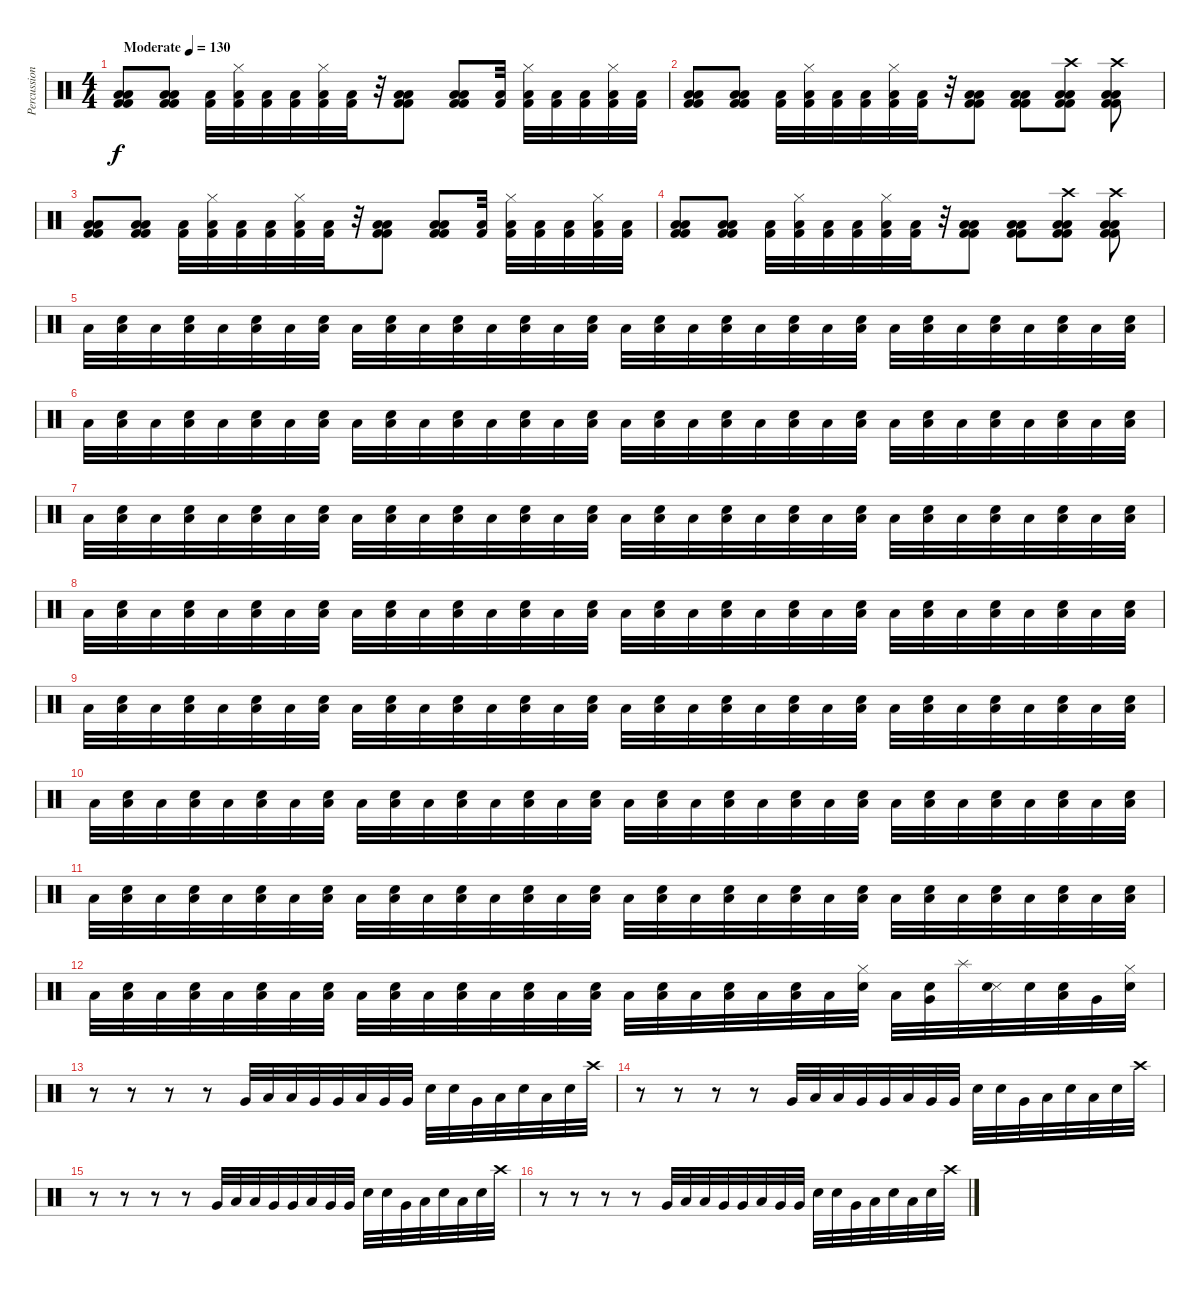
\track ("Percussion" "Percussion") {instrument percussion}
\staff {score}
\articulation defaults
\ts (4 4)
\tempo (130 "Moderate")
\clef neutral
\ks c
("Low Floor Tom (hit)" "Low Floor Tom (hit)" "Kick (hit) 2" "Kick (hit) 2").8{dy f} ("Low Floor Tom (hit)" "Low Floor Tom (hit)" "Kick (hit) 2" "Kick (hit) 2").8 ("Low Floor Tom (hit)" "Kick (hit) 2").32 ("Hi-Hat (closed)" "Low Floor Tom (hit)" "Kick (hit) 2").32 ("Low Floor Tom (hit)" "Kick (hit) 2").32 ("Low Floor Tom (hit)" "Kick (hit) 2").32 ("Hi-Hat (closed)" "Low Floor Tom (hit)" "Kick (hit) 2").32 ("Low Floor Tom (hit)" "Kick (hit) 2").32 r.32 ("Low Floor Tom (hit)" "Low Floor Tom (hit)" "Kick (hit) 2" "Kick (hit) 2").8 ("Low Floor Tom (hit)" "Low Floor Tom (hit)" "Kick (hit) 2" "Kick (hit) 2").8 ("Low Floor Tom (hit)" "Kick (hit) 2").32 ("Hi-Hat (closed)" "Low Floor Tom (hit)" "Kick (hit) 2").32 ("Low Floor Tom (hit)" "Kick (hit) 2").32 ("Low Floor Tom (hit)" "Kick (hit) 2").32 ("Hi-Hat (closed)" "Low Floor Tom (hit)" "Kick (hit) 2").32 ("Low Floor Tom (hit)" "Kick (hit) 2").32 |
("Low Floor Tom (hit)" "Low Floor Tom (hit)" "Kick (hit) 2" "Kick (hit) 2").8 ("Low Floor Tom (hit)" "Low Floor Tom (hit)" "Kick (hit) 2" "Kick (hit) 2").8 ("Low Floor Tom (hit)" "Kick (hit) 2").32 ("Hi-Hat (closed)" "Low Floor Tom (hit)" "Kick (hit) 2").32 ("Low Floor Tom (hit)" "Kick (hit) 2").32 ("Low Floor Tom (hit)" "Kick (hit) 2").32 ("Hi-Hat (closed)" "Low Floor Tom (hit)" "Kick (hit) 2").32 ("Low Floor Tom (hit)" "Kick (hit) 2").32 r.32 ("Low Floor Tom (hit)" "Low Floor Tom (hit)" "Kick (hit) 2" "Kick (hit) 2").8 ("Low Floor Tom (hit)" "Low Floor Tom (hit)" "Kick (hit) 2" "Kick (hit) 2").8 ("Low Floor Tom (hit)" "Low Floor Tom (hit)" "Kick (hit) 2" "Kick (hit) 2" "Crash high (hit)").8 ("Low Floor Tom (hit)" "Low Floor Tom (hit)" "Kick (hit) 2" "Kick (hit) 2" "Crash high (hit)").8 |
("Low Floor Tom (hit)" "Low Floor Tom (hit)" "Kick (hit) 2" "Kick (hit) 2").8 ("Low Floor Tom (hit)" "Low Floor Tom (hit)" "Kick (hit) 2" "Kick (hit) 2").8 ("Low Floor Tom (hit)" "Kick (hit) 2").32 ("Hi-Hat (closed)" "Low Floor Tom (hit)" "Kick (hit) 2").32 ("Low Floor Tom (hit)" "Kick (hit) 2").32 ("Low Floor Tom (hit)" "Kick (hit) 2").32 ("Hi-Hat (closed)" "Low Floor Tom (hit)" "Kick (hit) 2").32 ("Low Floor Tom (hit)" "Kick (hit) 2").32 r.32 ("Low Floor Tom (hit)" "Low Floor Tom (hit)" "Kick (hit) 2" "Kick (hit) 2").8 ("Low Floor Tom (hit)" "Low Floor Tom (hit)" "Kick (hit) 2" "Kick (hit) 2").8 ("Low Floor Tom (hit)" "Kick (hit) 2").32 ("Hi-Hat (closed)" "Low Floor Tom (hit)" "Kick (hit) 2").32 ("Low Floor Tom (hit)" "Kick (hit) 2").32 ("Low Floor Tom (hit)" "Kick (hit) 2").32 ("Hi-Hat (closed)" "Low Floor Tom (hit)" "Kick (hit) 2").32 ("Low Floor Tom (hit)" "Kick (hit) 2").32 |
("Low Floor Tom (hit)" "Low Floor Tom (hit)" "Kick (hit) 2" "Kick (hit) 2").8 ("Low Floor Tom (hit)" "Low Floor Tom (hit)" "Kick (hit) 2" "Kick (hit) 2").8 ("Low Floor Tom (hit)" "Kick (hit) 2").32 ("Hi-Hat (closed)" "Low Floor Tom (hit)" "Kick (hit) 2").32 ("Low Floor Tom (hit)" "Kick (hit) 2").32 ("Low Floor Tom (hit)" "Kick (hit) 2").32 ("Hi-Hat (closed)" "Low Floor Tom (hit)" "Kick (hit) 2").32 ("Low Floor Tom (hit)" "Kick (hit) 2").32 r.32 ("Low Floor Tom (hit)" "Low Floor Tom (hit)" "Kick (hit) 2" "Kick (hit) 2").8 ("Low Floor Tom (hit)" "Low Floor Tom (hit)" "Kick (hit) 2" "Kick (hit) 2").8 ("Low Floor Tom (hit)" "Low Floor Tom (hit)" "Kick (hit) 2" "Kick (hit) 2" "Crash high (hit)").8 ("Low Floor Tom (hit)" "Low Floor Tom (hit)" "Kick (hit) 2" "Kick (hit) 2" "Crash high (hit)").8 |
"Low Floor Tom (hit)".32 ("Low Floor Tom (hit)" "Electric Snare (hit)").32 "Low Floor Tom (hit)".32 ("Low Floor Tom (hit)" "Electric Snare (hit)").32 "Low Floor Tom (hit)".32 ("Low Floor Tom (hit)" "Electric Snare (hit)").32 "Low Floor Tom (hit)".32 ("Low Floor Tom (hit)" "Electric Snare (hit)").32 "Low Floor Tom (hit)".32 ("Low Floor Tom (hit)" "Electric Snare (hit)").32 "Low Floor Tom (hit)".32 ("Low Floor Tom (hit)" "Electric Snare (hit)").32 "Low Floor Tom (hit)".32 ("Low Floor Tom (hit)" "Electric Snare (hit)").32 "Low Floor Tom (hit)".32 ("Low Floor Tom (hit)" "Electric Snare (hit)").32 "Low Floor Tom (hit)".32 ("Low Floor Tom (hit)" "Electric Snare (hit)").32 "Low Floor Tom (hit)".32 ("Low Floor Tom (hit)" "Electric Snare (hit)").32 "Low Floor Tom (hit)".32 ("Low Floor Tom (hit)" "Electric Snare (hit)").32 "Low Floor Tom (hit)".32 ("Low Floor Tom (hit)" "Electric Snare (hit)").32 "Low Floor Tom (hit)".32 ("Low Floor Tom (hit)" "Electric Snare (hit)").32 "Low Floor Tom (hit)".32 ("Low Floor Tom (hit)" "Electric Snare (hit)").32 "Low Floor Tom (hit)".32 ("Low Floor Tom (hit)" "Electric Snare (hit)").32 "Low Floor Tom (hit)".32 ("Low Floor Tom (hit)" "Electric Snare (hit)").32 |
"Low Floor Tom (hit)".32 ("Low Floor Tom (hit)" "Electric Snare (hit)").32 "Low Floor Tom (hit)".32 ("Low Floor Tom (hit)" "Electric Snare (hit)").32 "Low Floor Tom (hit)".32 ("Low Floor Tom (hit)" "Electric Snare (hit)").32 "Low Floor Tom (hit)".32 ("Low Floor Tom (hit)" "Electric Snare (hit)").32 "Low Floor Tom (hit)".32 ("Low Floor Tom (hit)" "Electric Snare (hit)").32 "Low Floor Tom (hit)".32 ("Low Floor Tom (hit)" "Electric Snare (hit)").32 "Low Floor Tom (hit)".32 ("Low Floor Tom (hit)" "Electric Snare (hit)").32 "Low Floor Tom (hit)".32 ("Low Floor Tom (hit)" "Electric Snare (hit)").32 "Low Floor Tom (hit)".32 ("Low Floor Tom (hit)" "Electric Snare (hit)").32 "Low Floor Tom (hit)".32 ("Low Floor Tom (hit)" "Electric Snare (hit)").32 "Low Floor Tom (hit)".32 ("Low Floor Tom (hit)" "Electric Snare (hit)").32 "Low Floor Tom (hit)".32 ("Low Floor Tom (hit)" "Electric Snare (hit)").32 "Low Floor Tom (hit)".32 ("Low Floor Tom (hit)" "Electric Snare (hit)").32 "Low Floor Tom (hit)".32 ("Low Floor Tom (hit)" "Electric Snare (hit)").32 "Low Floor Tom (hit)".32 ("Low Floor Tom (hit)" "Electric Snare (hit)").32 "Low Floor Tom (hit)".32 ("Low Floor Tom (hit)" "Electric Snare (hit)").32 |
"Low Floor Tom (hit)".32 ("Low Floor Tom (hit)" "Electric Snare (hit)").32 "Low Floor Tom (hit)".32 ("Low Floor Tom (hit)" "Electric Snare (hit)").32 "Low Floor Tom (hit)".32 ("Low Floor Tom (hit)" "Electric Snare (hit)").32 "Low Floor Tom (hit)".32 ("Low Floor Tom (hit)" "Electric Snare (hit)").32 "Low Floor Tom (hit)".32 ("Low Floor Tom (hit)" "Electric Snare (hit)").32 "Low Floor Tom (hit)".32 ("Low Floor Tom (hit)" "Electric Snare (hit)").32 "Low Floor Tom (hit)".32 ("Low Floor Tom (hit)" "Electric Snare (hit)").32 "Low Floor Tom (hit)".32 ("Low Floor Tom (hit)" "Electric Snare (hit)").32 "Low Floor Tom (hit)".32 ("Low Floor Tom (hit)" "Electric Snare (hit)").32 "Low Floor Tom (hit)".32 ("Low Floor Tom (hit)" "Electric Snare (hit)").32 "Low Floor Tom (hit)".32 ("Low Floor Tom (hit)" "Electric Snare (hit)").32 "Low Floor Tom (hit)".32 ("Low Floor Tom (hit)" "Electric Snare (hit)").32 "Low Floor Tom (hit)".32 ("Low Floor Tom (hit)" "Electric Snare (hit)").32 "Low Floor Tom (hit)".32 ("Low Floor Tom (hit)" "Electric Snare (hit)").32 "Low Floor Tom (hit)".32 ("Low Floor Tom (hit)" "Electric Snare (hit)").32 "Low Floor Tom (hit)".32 ("Low Floor Tom (hit)" "Electric Snare (hit)").32 |
"Low Floor Tom (hit)".32 ("Low Floor Tom (hit)" "Electric Snare (hit)").32 "Low Floor Tom (hit)".32 ("Low Floor Tom (hit)" "Electric Snare (hit)").32 "Low Floor Tom (hit)".32 ("Low Floor Tom (hit)" "Electric Snare (hit)").32 "Low Floor Tom (hit)".32 ("Low Floor Tom (hit)" "Electric Snare (hit)").32 "Low Floor Tom (hit)".32 ("Low Floor Tom (hit)" "Electric Snare (hit)").32 "Low Floor Tom (hit)".32 ("Low Floor Tom (hit)" "Electric Snare (hit)").32 "Low Floor Tom (hit)".32 ("Low Floor Tom (hit)" "Electric Snare (hit)").32 "Low Floor Tom (hit)".32 ("Low Floor Tom (hit)" "Electric Snare (hit)").32 "Low Floor Tom (hit)".32 ("Low Floor Tom (hit)" "Electric Snare (hit)").32 "Low Floor Tom (hit)".32 ("Low Floor Tom (hit)" "Electric Snare (hit)").32 "Low Floor Tom (hit)".32 ("Low Floor Tom (hit)" "Electric Snare (hit)").32 "Low Floor Tom (hit)".32 ("Low Floor Tom (hit)" "Electric Snare (hit)").32 "Low Floor Tom (hit)".32 ("Low Floor Tom (hit)" "Electric Snare (hit)").32 "Low Floor Tom (hit)".32 ("Low Floor Tom (hit)" "Electric Snare (hit)").32 "Low Floor Tom (hit)".32 ("Low Floor Tom (hit)" "Electric Snare (hit)").32 "Low Floor Tom (hit)".32 ("Low Floor Tom (hit)" "Electric Snare (hit)").32 |
"Low Floor Tom (hit)".32 ("Low Floor Tom (hit)" "Electric Snare (hit)").32 "Low Floor Tom (hit)".32 ("Low Floor Tom (hit)" "Electric Snare (hit)").32 "Low Floor Tom (hit)".32 ("Low Floor Tom (hit)" "Electric Snare (hit)").32 "Low Floor Tom (hit)".32 ("Low Floor Tom (hit)" "Electric Snare (hit)").32 "Low Floor Tom (hit)".32 ("Low Floor Tom (hit)" "Electric Snare (hit)").32 "Low Floor Tom (hit)".32 ("Low Floor Tom (hit)" "Electric Snare (hit)").32 "Low Floor Tom (hit)".32 ("Low Floor Tom (hit)" "Electric Snare (hit)").32 "Low Floor Tom (hit)".32 ("Low Floor Tom (hit)" "Electric Snare (hit)").32 "Low Floor Tom (hit)".32 ("Low Floor Tom (hit)" "Electric Snare (hit)").32 "Low Floor Tom (hit)".32 ("Low Floor Tom (hit)" "Electric Snare (hit)").32 "Low Floor Tom (hit)".32 ("Low Floor Tom (hit)" "Electric Snare (hit)").32 "Low Floor Tom (hit)".32 ("Low Floor Tom (hit)" "Electric Snare (hit)").32 "Low Floor Tom (hit)".32 ("Low Floor Tom (hit)" "Electric Snare (hit)").32 "Low Floor Tom (hit)".32 ("Low Floor Tom (hit)" "Electric Snare (hit)").32 "Low Floor Tom (hit)".32 ("Low Floor Tom (hit)" "Electric Snare (hit)").32 "Low Floor Tom (hit)".32 ("Low Floor Tom (hit)" "Electric Snare (hit)").32 |
"Low Floor Tom (hit)".32 ("Low Floor Tom (hit)" "Electric Snare (hit)").32 "Low Floor Tom (hit)".32 ("Low Floor Tom (hit)" "Electric Snare (hit)").32 "Low Floor Tom (hit)".32 ("Low Floor Tom (hit)" "Electric Snare (hit)").32 "Low Floor Tom (hit)".32 ("Low Floor Tom (hit)" "Electric Snare (hit)").32 "Low Floor Tom (hit)".32 ("Low Floor Tom (hit)" "Electric Snare (hit)").32 "Low Floor Tom (hit)".32 ("Low Floor Tom (hit)" "Electric Snare (hit)").32 "Low Floor Tom (hit)".32 ("Low Floor Tom (hit)" "Electric Snare (hit)").32 "Low Floor Tom (hit)".32 ("Low Floor Tom (hit)" "Electric Snare (hit)").32 "Low Floor Tom (hit)".32 ("Low Floor Tom (hit)" "Electric Snare (hit)").32 "Low Floor Tom (hit)".32 ("Low Floor Tom (hit)" "Electric Snare (hit)").32 "Low Floor Tom (hit)".32 ("Low Floor Tom (hit)" "Electric Snare (hit)").32 "Low Floor Tom (hit)".32 ("Low Floor Tom (hit)" "Electric Snare (hit)").32 "Low Floor Tom (hit)".32 ("Low Floor Tom (hit)" "Electric Snare (hit)").32 "Low Floor Tom (hit)".32 ("Low Floor Tom (hit)" "Electric Snare (hit)").32 "Low Floor Tom (hit)".32 ("Low Floor Tom (hit)" "Electric Snare (hit)").32 "Low Floor Tom (hit)".32 ("Low Floor Tom (hit)" "Electric Snare (hit)").32 |
"Low Floor Tom (hit)".32 ("Low Floor Tom (hit)" "Electric Snare (hit)").32 "Low Floor Tom (hit)".32 ("Low Floor Tom (hit)" "Electric Snare (hit)").32 "Low Floor Tom (hit)".32 ("Low Floor Tom (hit)" "Electric Snare (hit)").32 "Low Floor Tom (hit)".32 ("Low Floor Tom (hit)" "Electric Snare (hit)").32 "Low Floor Tom (hit)".32 ("Low Floor Tom (hit)" "Electric Snare (hit)").32 "Low Floor Tom (hit)".32 ("Low Floor Tom (hit)" "Electric Snare (hit)").32 "Low Floor Tom (hit)".32 ("Low Floor Tom (hit)" "Electric Snare (hit)").32 "Low Floor Tom (hit)".32 ("Low Floor Tom (hit)" "Electric Snare (hit)").32 "Low Floor Tom (hit)".32 ("Low Floor Tom (hit)" "Electric Snare (hit)").32 "Low Floor Tom (hit)".32 ("Low Floor Tom (hit)" "Electric Snare (hit)").32 "Low Floor Tom (hit)".32 ("Low Floor Tom (hit)" "Electric Snare (hit)").32 "Low Floor Tom (hit)".32 ("Low Floor Tom (hit)" "Electric Snare (hit)").32 "Low Floor Tom (hit)".32 ("Low Floor Tom (hit)" "Electric Snare (hit)").32 "Low Floor Tom (hit)".32 ("Low Floor Tom (hit)" "Electric Snare (hit)").32 "Low Floor Tom (hit)".32 ("Low Floor Tom (hit)" "Electric Snare (hit)").32 "Low Floor Tom (hit)".32 ("Low Floor Tom (hit)" "Electric Snare (hit)").32 |
"Low Floor Tom (hit)".32 ("Low Floor Tom (hit)" "Electric Snare (hit)").32 "Low Floor Tom (hit)".32 ("Low Floor Tom (hit)" "Electric Snare (hit)").32 "Low Floor Tom (hit)".32 ("Low Floor Tom (hit)" "Electric Snare (hit)").32 "Low Floor Tom (hit)".32 ("Low Floor Tom (hit)" "Electric Snare (hit)").32 "Low Floor Tom (hit)".32 ("Low Floor Tom (hit)" "Electric Snare (hit)").32 "Low Floor Tom (hit)".32 ("Low Floor Tom (hit)" "Electric Snare (hit)").32 "Low Floor Tom (hit)".32 ("Low Floor Tom (hit)" "Electric Snare (hit)").32 "Low Floor Tom (hit)".32 ("Low Floor Tom (hit)" "Electric Snare (hit)").32 "Low Floor Tom (hit)".32 ("Low Floor Tom (hit)" "Electric Snare (hit)").32 "Low Floor Tom (hit)".32 ("Low Floor Tom (hit)" "Electric Snare (hit)").32 "Low Floor Tom (hit)".32 ("Low Floor Tom (hit)" "Electric Snare (hit)").32 "Low Floor Tom (hit)".32 ("Hi-Hat (closed)" "Electric Snare (hit)").32 "Low Floor Tom (hit)".32 ("Very Low Tom (hit)" "Electric Snare (hit)").32 "Splash (hit)".32 ("Snare (side stick) 3" "Electric Snare (hit)").32 "Hand Clap (hit)".32 ("Low Floor Tom (hit)" "Electric Snare (hit)").32 "Very Low Tom (hit)".32 ("Hi-Hat (closed)" "Electric Snare (hit)").32 |
r.8 r.8 r.8 r.8 "Very Low Tom (hit)".32 "Low Floor Tom (hit)".32 "Low Floor Tom (hit)".32 "Very Low Tom (hit)".32 "Very Low Tom (hit)".32 "Low Floor Tom (hit)".32 "Very Low Tom (hit)".32 "Very Low Tom (hit)".32 "Snare (hit) 2".32 "Snare (hit) 2".32 "Very Low Tom (hit)".32 "Low Floor Tom (hit)".32 "Snare (hit) 2".32 "Low Floor Tom (hit)".32 "Snare (hit) 2".32 "Crash high (hit)".32 |
r.8 r.8 r.8 r.8 "Very Low Tom (hit)".32 "Low Floor Tom (hit)".32 "Low Floor Tom (hit)".32 "Very Low Tom (hit)".32 "Very Low Tom (hit)".32 "Low Floor Tom (hit)".32 "Very Low Tom (hit)".32 "Very Low Tom (hit)".32 "Snare (hit) 2".32 "Snare (hit) 2".32 "Very Low Tom (hit)".32 "Low Floor Tom (hit)".32 "Snare (hit) 2".32 "Low Floor Tom (hit)".32 "Snare (hit) 2".32 "Crash high (hit)".32 |
r.8 r.8 r.8 r.8 "Very Low Tom (hit)".32 "Low Floor Tom (hit)".32 "Low Floor Tom (hit)".32 "Very Low Tom (hit)".32 "Very Low Tom (hit)".32 "Low Floor Tom (hit)".32 "Very Low Tom (hit)".32 "Very Low Tom (hit)".32 "Snare (hit) 2".32 "Snare (hit) 2".32 "Very Low Tom (hit)".32 "Low Floor Tom (hit)".32 "Snare (hit) 2".32 "Low Floor Tom (hit)".32 "Snare (hit) 2".32 "Crash high (hit)".32 |
r.8 r.8 r.8 r.8 "Very Low Tom (hit)".32 "Low Floor Tom (hit)".32 "Low Floor Tom (hit)".32 "Very Low Tom (hit)".32 "Very Low Tom (hit)".32 "Low Floor Tom (hit)".32 "Very Low Tom (hit)".32 "Very Low Tom (hit)".32 "Snare (hit) 2".32 "Snare (hit) 2".32 "Very Low Tom (hit)".32 "Low Floor Tom (hit)".32 "Snare (hit) 2".32 "Low Floor Tom (hit)".32 "Snare (hit) 2".32 "Crash high (hit)".32
